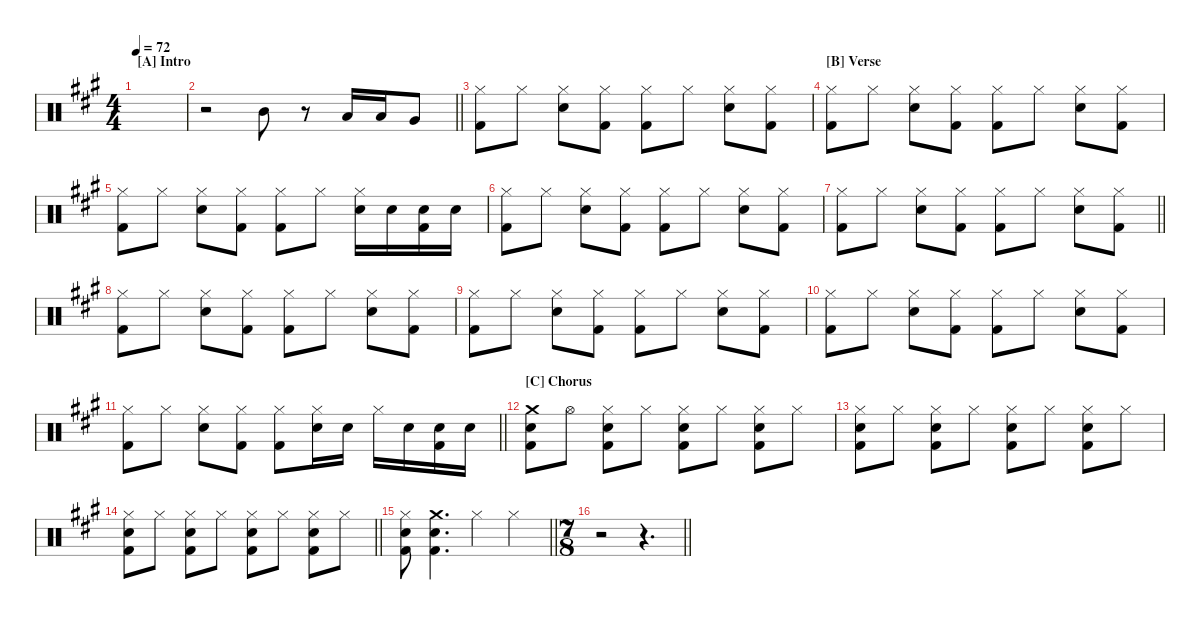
\hideDynamics
\bracketExtendMode nobrackets
\singleTrackTrackNamePolicy hidden
\multiTrackTrackNamePolicy hidden
\otherSystemsTrackNameOrientation horizontal
\track ("Drumkit" "Drums") {instrument percussion}
\staff {score}
\articulation defaults
\ts (4 4)
\beaming (8 2 2 2 2)
\section ("A" "Intro")
\tempo 72
\clef neutral
\scale
0.472222
\ks a
|
\scale
0.263889
\barLineRight lightlight
r.2{beam Down} "Mid Tom (hit)"{acc forcenatural}.8{beam Down} r.8{beam Down} "Low Tom (hit)"{acc forcenatural}.16{beam Up} "Low Tom (hit)"{acc forcenatural}.16{beam Up} "Very Low Tom (hit)"{acc forcenatural}.8{beam Up} |
\scale
0.263889 ("Hi-Hat (closed)"{acc forcenatural} "Kick (hit) 2"{acc forcenatural}).8{dy mf beam Down} "Hi-Hat (closed)"{acc forcenatural}.8{beam Down} ("Hi-Hat (closed)"{acc forcenatural} "Snare (hit) 2"{acc forcenatural}).8{beam Down} ("Hi-Hat (closed)"{acc forcenatural} "Kick (hit) 2"{acc forcenatural}).8{beam Down} ("Hi-Hat (closed)"{acc forcenatural} "Kick (hit) 2"{acc forcenatural}).8{beam Down} "Hi-Hat (closed)"{acc forcenatural}.8{beam Down} ("Hi-Hat (closed)"{acc forcenatural} "Snare (hit) 2"{acc forcenatural}).8{beam Down} ("Hi-Hat (closed)"{acc forcenatural} "Kick (hit) 2"{acc forcenatural}).8{beam Down} |
\section ("B" "Verse")
\scale
0.377049 ("Hi-Hat (closed)"{acc forcenatural} "Kick (hit) 2"{acc forcenatural}).8{beam Down} "Hi-Hat (closed)"{acc forcenatural}.8{beam Down} ("Hi-Hat (closed)"{acc forcenatural} "Snare (hit) 2"{acc forcenatural}).8{beam Down} ("Hi-Hat (closed)"{acc forcenatural} "Kick (hit) 2"{acc forcenatural}).8{beam Down} ("Hi-Hat (closed)"{acc forcenatural} "Kick (hit) 2"{acc forcenatural}).8{beam Down} "Hi-Hat (closed)"{acc forcenatural}.8{beam Down} ("Hi-Hat (closed)"{acc forcenatural} "Snare (hit) 2"{acc forcenatural}).8{beam Down} ("Hi-Hat (closed)"{acc forcenatural} "Kick (hit) 2"{acc forcenatural}).8{beam Down} |
\scale
0.311475 ("Kick (hit) 2"{acc forcenatural} "Hi-Hat (closed)"{acc forcenatural}).8{beam Down} "Hi-Hat (closed)"{acc forcenatural}.8{beam Down} ("Snare (hit) 2"{acc forcenatural} "Hi-Hat (closed)"{acc forcenatural}).8{beam Down} ("Kick (hit) 2"{acc forcenatural} "Hi-Hat (closed)"{acc forcenatural}).8{beam Down} ("Kick (hit) 2"{acc forcenatural} "Hi-Hat (closed)"{acc forcenatural}).8{beam Down} "Hi-Hat (closed)"{acc forcenatural}.8{beam Down} ("Snare (hit) 2"{acc forcenatural} "Hi-Hat (closed)"{acc forcenatural}).16{beam Down} "Snare (hit) 2"{acc forcenatural}.16{beam Down} ("Snare (hit) 2"{acc forcenatural} "Kick (hit) 2"{acc forcenatural}).16{beam Down} "Snare (hit) 2"{acc forcenatural}.16{beam Down} |
\scale
0.333333 ("Hi-Hat (closed)"{acc forcenatural} "Kick (hit) 2"{acc forcenatural}).8{beam Down} "Hi-Hat (closed)"{acc forcenatural}.8{beam Down} ("Hi-Hat (closed)"{acc forcenatural} "Snare (hit) 2"{acc forcenatural}).8{beam Down} ("Hi-Hat (closed)"{acc forcenatural} "Kick (hit) 2"{acc forcenatural}).8{beam Down} ("Hi-Hat (closed)"{acc forcenatural} "Kick (hit) 2"{acc forcenatural}).8{beam Down} "Hi-Hat (closed)"{acc forcenatural}.8{beam Down} ("Hi-Hat (closed)"{acc forcenatural} "Snare (hit) 2"{acc forcenatural}).8{beam Down} ("Hi-Hat (closed)"{acc forcenatural} "Kick (hit) 2"{acc forcenatural}).8{beam Down} |
\scale
0.333333
\barLineRight lightlight
("Hi-Hat (closed)"{acc forcenatural} "Kick (hit) 2"{acc forcenatural}).8{beam Down} "Hi-Hat (closed)"{acc forcenatural}.8{beam Down} ("Hi-Hat (closed)"{acc forcenatural} "Snare (hit) 2"{acc forcenatural}).8{beam Down} ("Hi-Hat (closed)"{acc forcenatural} "Kick (hit) 2"{acc forcenatural}).8{beam Down} ("Hi-Hat (closed)"{acc forcenatural} "Kick (hit) 2"{acc forcenatural}).8{beam Down} "Hi-Hat (closed)"{acc forcenatural}.8{beam Down} ("Hi-Hat (closed)"{acc forcenatural} "Snare (hit) 2"{acc forcenatural}).8{beam Down} ("Hi-Hat (closed)"{acc forcenatural} "Kick (hit) 2"{acc forcenatural}).8{beam Down} |
\scale
0.333333 ("Hi-Hat (closed)"{acc forcenatural} "Kick (hit) 2"{acc forcenatural}).8{beam Down} "Hi-Hat (closed)"{acc forcenatural}.8{beam Down} ("Hi-Hat (closed)"{acc forcenatural} "Snare (hit) 2"{acc forcenatural}).8{beam Down} ("Hi-Hat (closed)"{acc forcenatural} "Kick (hit) 2"{acc forcenatural}).8{beam Down} ("Hi-Hat (closed)"{acc forcenatural} "Kick (hit) 2"{acc forcenatural}).8{beam Down} "Hi-Hat (closed)"{acc forcenatural}.8{beam Down} ("Hi-Hat (closed)"{acc forcenatural} "Snare (hit) 2"{acc forcenatural}).8{beam Down} ("Hi-Hat (closed)"{acc forcenatural} "Kick (hit) 2"{acc forcenatural}).8{beam Down} |
\scale
0.333333 ("Hi-Hat (closed)"{acc forcenatural} "Kick (hit) 2"{acc forcenatural}).8{beam Down} "Hi-Hat (closed)"{acc forcenatural}.8{beam Down} ("Hi-Hat (closed)"{acc forcenatural} "Snare (hit) 2"{acc forcenatural}).8{beam Down} ("Hi-Hat (closed)"{acc forcenatural} "Kick (hit) 2"{acc forcenatural}).8{beam Down} ("Hi-Hat (closed)"{acc forcenatural} "Kick (hit) 2"{acc forcenatural}).8{beam Down} "Hi-Hat (closed)"{acc forcenatural}.8{beam Down} ("Hi-Hat (closed)"{acc forcenatural} "Snare (hit) 2"{acc forcenatural}).8{beam Down} ("Hi-Hat (closed)"{acc forcenatural} "Kick (hit) 2"{acc forcenatural}).8{beam Down} |
\scale
0.333333 ("Hi-Hat (closed)"{acc forcenatural} "Kick (hit) 2"{acc forcenatural}).8{beam Down} "Hi-Hat (closed)"{acc forcenatural}.8{beam Down} ("Hi-Hat (closed)"{acc forcenatural} "Snare (hit) 2"{acc forcenatural}).8{beam Down} ("Hi-Hat (closed)"{acc forcenatural} "Kick (hit) 2"{acc forcenatural}).8{beam Down} ("Hi-Hat (closed)"{acc forcenatural} "Kick (hit) 2"{acc forcenatural}).8{beam Down} "Hi-Hat (closed)"{acc forcenatural}.8{beam Down} ("Hi-Hat (closed)"{acc forcenatural} "Snare (hit) 2"{acc forcenatural}).8{beam Down} ("Hi-Hat (closed)"{acc forcenatural} "Kick (hit) 2"{acc forcenatural}).8{beam Down} |
\scale
0.333333
\barLineRight lightlight
("Kick (hit) 2"{acc forcenatural} "Hi-Hat (closed)"{acc forcenatural}).8{beam Down} "Hi-Hat (closed)"{acc forcenatural}.8{beam Down} ("Snare (hit) 2"{acc forcenatural} "Hi-Hat (closed)"{acc forcenatural}).8{beam Down} ("Kick (hit) 2"{acc forcenatural} "Hi-Hat (closed)"{acc forcenatural}).8{beam Down} ("Kick (hit) 2"{acc forcenatural} "Hi-Hat (closed)"{acc forcenatural}).8{beam Down} ("Snare (hit) 2"{acc forcenatural} "Hi-Hat (closed)"{acc forcenatural}).16{beam Down} "Snare (hit) 2"{acc forcenatural}.16{beam Down} "Hi-Hat (closed)"{acc forcenatural}.16{beam Down} "Snare (hit) 2"{acc forcenatural}.16{beam Down} ("Snare (hit) 2"{acc forcenatural} "Kick (hit) 2"{acc forcenatural}).16{beam Down} "Snare (hit) 2"{acc forcenatural}.16{beam Down} |
\section ("C" "Chorus")
\scale
0.333333 ("Snare (hit) 2"{acc forcenatural} "Crash medium (hit)"{acc forcenatural} "Kick (hit) 2"{acc forcenatural}).8{beam Down} "Hi-Hat (open)"{acc forcenatural}.8{beam Down} ("Kick (hit) 2"{acc forcenatural} "Hi-Hat (closed)"{acc forcenatural} "Snare (hit) 2"{acc forcenatural}).8{beam Down} "Hi-Hat (closed)"{acc forcenatural}.8{beam Down} ("Kick (hit) 2"{acc forcenatural} "Snare (hit) 2"{acc forcenatural} "Hi-Hat (closed)"{acc forcenatural}).8{beam Down} "Hi-Hat (closed)"{acc forcenatural}.8{beam Down} ("Kick (hit) 2"{acc forcenatural} "Snare (hit) 2"{acc forcenatural} "Hi-Hat (closed)"{acc forcenatural}).8{beam Down} "Hi-Hat (closed)"{acc forcenatural}.8{beam Down} |
\scale
0.333333 ("Hi-Hat (closed)"{acc forcenatural} "Snare (hit) 2"{acc forcenatural} "Kick (hit) 2"{acc forcenatural}).8{beam Down} "Hi-Hat (closed)"{acc forcenatural}.8{beam Down} ("Kick (hit) 2"{acc forcenatural} "Hi-Hat (closed)"{acc forcenatural} "Snare (hit) 2"{acc forcenatural}).8{beam Down} "Hi-Hat (closed)"{acc forcenatural}.8{beam Down} ("Kick (hit) 2"{acc forcenatural} "Snare (hit) 2"{acc forcenatural} "Hi-Hat (closed)"{acc forcenatural}).8{beam Down} "Hi-Hat (closed)"{acc forcenatural}.8{beam Down} ("Kick (hit) 2"{acc forcenatural} "Snare (hit) 2"{acc forcenatural} "Hi-Hat (closed)"{acc forcenatural}).8{beam Down} "Hi-Hat (closed)"{acc forcenatural}.8{beam Down} |
\scale
0.333333
\barLineRight lightlight
("Hi-Hat (closed)"{acc forcenatural} "Snare (hit) 2"{acc forcenatural} "Kick (hit) 2"{acc forcenatural}).8{beam Down} "Hi-Hat (closed)"{acc forcenatural}.8{beam Down} ("Kick (hit) 2"{acc forcenatural} "Hi-Hat (closed)"{acc forcenatural} "Snare (hit) 2"{acc forcenatural}).8{beam Down} "Hi-Hat (closed)"{acc forcenatural}.8{beam Down} ("Kick (hit) 2"{acc forcenatural} "Snare (hit) 2"{acc forcenatural} "Hi-Hat (closed)"{acc forcenatural}).8{beam Down} "Hi-Hat (closed)"{acc forcenatural}.8{beam Down} ("Kick (hit) 2"{acc forcenatural} "Snare (hit) 2"{acc forcenatural} "Hi-Hat (closed)"{acc forcenatural}).8{beam Down} "Hi-Hat (closed)"{acc forcenatural}.8{beam Down} |
\scale
0.333333
\barLineRight lightlight
("Hi-Hat (closed)"{acc forcenatural} "Snare (hit) 2"{acc forcenatural} "Kick (hit) 2"{acc forcenatural}).8{beam Down} ("Snare (hit) 2"{acc forcenatural} "Kick (hit) 2"{acc forcenatural} "Crash medium (hit)"{acc forcenatural}).4{d beam Down} "Hi-Hat (closed)"{acc forcenatural}.4{beam Down} "Hi-Hat (closed)"{acc forcenatural}.4{beam Down} |
\ts (7 8)
\beaming (8 3 2 2)
\barLineRight lightlight
r.2{beam Down} r.4{d beam Down}
